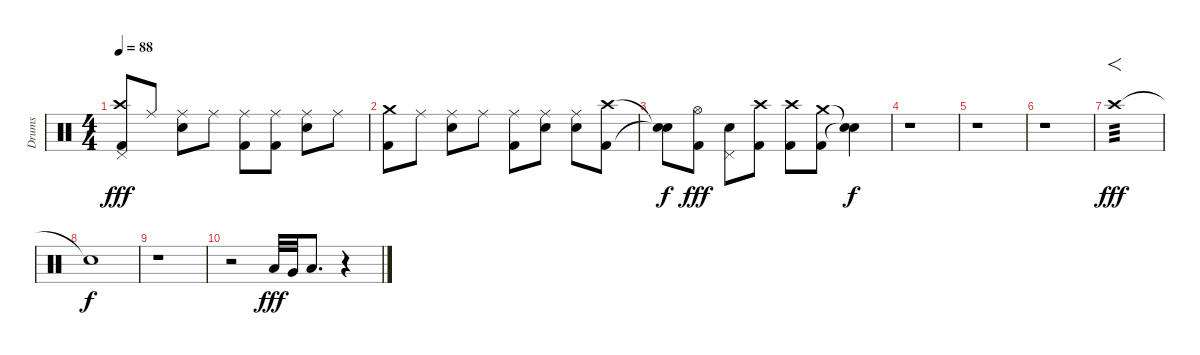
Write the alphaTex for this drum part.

\track ("Drums" "Drums") {instrument percussion}
\staff {score}
\articulation defaults
\ts (4 4)
\tempo 88
\clef neutral
\ks c
("Pedal Hi-Hat (hit)" "Crash high (hit)" "Kick (hit) 2").8{dy fff} "Ride (middle)".8 ("Ride (middle)" "Snare (hit) 2").8 "Ride (middle)".8 ("Ride (middle)" "Kick (hit) 2").8 ("Ride (middle)" "Kick (hit) 2").8 ("Ride (middle)" "Snare (hit) 2").8 "Ride (middle)".8 |
("Crash medium (hit)" "Kick (hit) 2").8 "Ride (middle)".8 ("Ride (middle)" "Snare (hit) 2").8 "Ride (middle)".8 ("Ride (middle)" "Kick (hit) 2").8 ("Ride (middle)" "Snare (hit) 2").8 ("Ride (middle)" "Snare (hit) 2").8 ("Crash high (hit)" "Kick (hit) 2").8 |
("Snare (hit)"{t} "Snare (hit)"{t}).8{dy f} ("Hi-Hat (open)" "Kick (hit) 2").8{dy fff} ("Pedal Hi-Hat (hit)" "Snare (hit) 2").8 ("Crash high (hit)" "Kick (hit) 2").8 ("Crash high (hit)" "Kick (hit) 2").8 ("Crash medium (hit)" "Kick (hit) 2").8 ("Snare (hit)"{t} "Snare (hit)"{t}).4{dy f} |
r.1 |
r.1 |
r.1 |
"Crash high (hit)".1{f tp 3 dy fff} |
"Snare (hit)"{t}.1{dy f} |
r.1 |
r.2 "Low Tom (hit)".32{dy fff} "Very Low Tom (hit)".32 "Low Floor Tom (hit)".8{d} r.4
